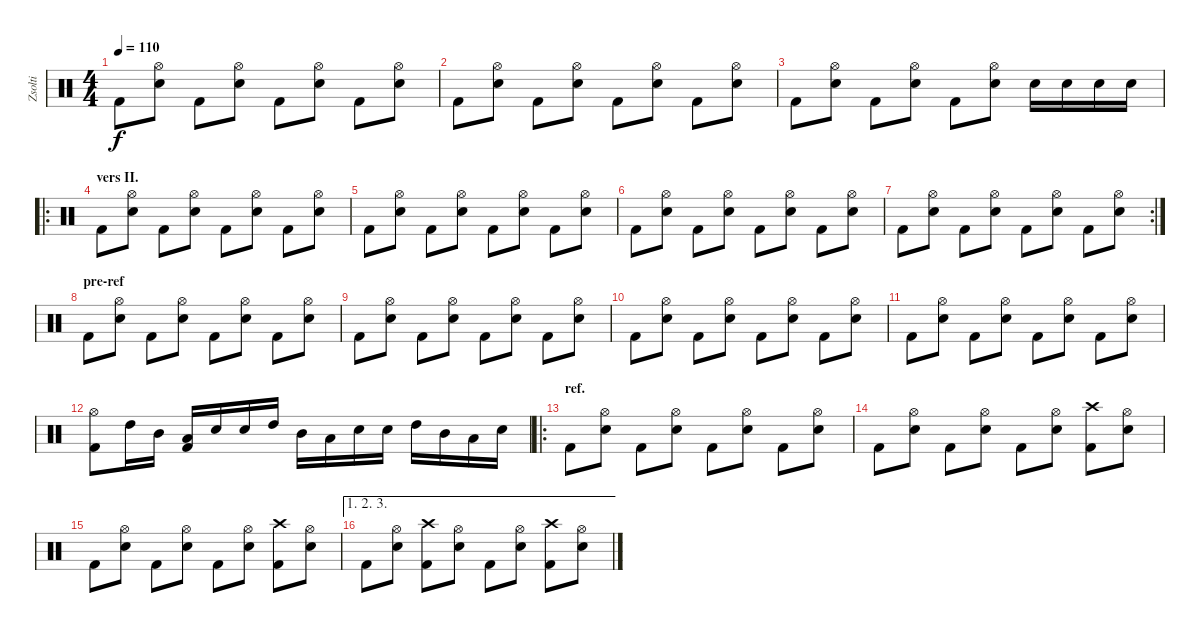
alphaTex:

\track ("Zsolti" "Zsolti") {instrument percussion}
\staff {score}
\articulation defaults
\ts (4 4)
\tempo 110
\clef neutral
\ks c "Kick (hit) 2".8{dy f}
("Hi-Hat (open)" "Snare (hit) 2").8 "Kick (hit) 2".8 ("Hi-Hat (open)" "Snare (hit) 2").8 "Kick (hit) 2".8 ("Hi-Hat (open)" "Snare (hit) 2").8 "Kick (hit) 2".8 ("Hi-Hat (open)" "Snare (hit) 2").8 |
"Kick (hit) 2".8 ("Hi-Hat (open)" "Snare (hit) 2").8 "Kick (hit) 2".8 ("Hi-Hat (open)" "Snare (hit) 2").8 "Kick (hit) 2".8 ("Hi-Hat (open)" "Snare (hit) 2").8 "Kick (hit) 2".8 ("Hi-Hat (open)" "Snare (hit) 2").8 |
"Kick (hit) 2".8 ("Hi-Hat (open)" "Snare (hit) 2").8 "Kick (hit) 2".8 ("Hi-Hat (open)" "Snare (hit) 2").8 "Kick (hit) 2".8 ("Hi-Hat (open)" "Snare (hit) 2").8 "Snare (hit) 2".16 "Snare (hit) 2".16 "Snare (hit) 2".16 "Snare (hit) 2".16 |
\ro
\section ("" "vers II.")
"Kick (hit) 2".8 ("Hi-Hat (open)" "Snare (hit) 2").8 "Kick (hit) 2".8 ("Hi-Hat (open)" "Snare (hit) 2").8 "Kick (hit) 2".8 ("Hi-Hat (open)" "Snare (hit) 2").8 "Kick (hit) 2".8 ("Hi-Hat (open)" "Snare (hit) 2").8 |
"Kick (hit) 2".8 ("Hi-Hat (open)" "Snare (hit) 2").8 "Kick (hit) 2".8 ("Hi-Hat (open)" "Snare (hit) 2").8 "Kick (hit) 2".8 ("Hi-Hat (open)" "Snare (hit) 2").8 "Kick (hit) 2".8 ("Hi-Hat (open)" "Snare (hit) 2").8 |
"Kick (hit) 2".8 ("Hi-Hat (open)" "Snare (hit) 2").8 "Kick (hit) 2".8 ("Hi-Hat (open)" "Snare (hit) 2").8 "Kick (hit) 2".8 ("Hi-Hat (open)" "Snare (hit) 2").8 "Kick (hit) 2".8 ("Hi-Hat (open)" "Snare (hit) 2").8 |
\rc 2 "Kick (hit) 2".8
("Hi-Hat (open)" "Snare (hit) 2").8 "Kick (hit) 2".8 ("Hi-Hat (open)" "Snare (hit) 2").8 "Kick (hit) 2".8 ("Hi-Hat (open)" "Snare (hit) 2").8 "Kick (hit) 2".8 ("Hi-Hat (open)" "Snare (hit) 2").8 |
\section ("" "pre-ref")
"Kick (hit) 2".8 ("Hi-Hat (open)" "Snare (hit) 2").8 "Kick (hit) 2".8 ("Hi-Hat (open)" "Snare (hit) 2").8 "Kick (hit) 2".8 ("Hi-Hat (open)" "Snare (hit) 2").8 "Kick (hit) 2".8 ("Hi-Hat (open)" "Snare (hit) 2").8 |
"Kick (hit) 2".8 ("Hi-Hat (open)" "Snare (hit) 2").8 "Kick (hit) 2".8 ("Hi-Hat (open)" "Snare (hit) 2").8 "Kick (hit) 2".8 ("Hi-Hat (open)" "Snare (hit) 2").8 "Kick (hit) 2".8 ("Hi-Hat (open)" "Snare (hit) 2").8 |
"Kick (hit) 2".8 ("Hi-Hat (open)" "Snare (hit) 2").8 "Kick (hit) 2".8 ("Hi-Hat (open)" "Snare (hit) 2").8 "Kick (hit) 2".8 ("Hi-Hat (open)" "Snare (hit) 2").8 "Kick (hit) 2".8 ("Hi-Hat (open)" "Snare (hit) 2").8 |
"Kick (hit) 2".8 ("Hi-Hat (open)" "Snare (hit) 2").8 "Kick (hit) 2".8 ("Hi-Hat (open)" "Snare (hit) 2").8 "Kick (hit) 2".8 ("Hi-Hat (open)" "Snare (hit) 2").8 "Kick (hit) 2".8 ("Hi-Hat (open)" "Snare (hit) 2").8 |
("Hi-Hat (open)" "Kick (hit) 2").8 "High Tom (hit)".16 "Mid Tom (hit)".16 ("Low Tom (hit)" "Kick (hit) 2").16 "Snare (hit) 2".16 "Snare (hit) 2".16 "High Tom (hit)".16 "Mid Tom (hit)".16 "Low Tom (hit)".16 "Snare (hit) 2".16 "Snare (hit) 2".16 "High Tom (hit)".16 "Mid Tom (hit)".16 "Low Tom (hit)".16 "Snare (hit) 2".16 |
\ro
\section ("" "ref.")
"Kick (hit) 2".8 ("Hi-Hat (open)" "Snare (hit) 2").8 "Kick (hit) 2".8 ("Hi-Hat (open)" "Snare (hit) 2").8 "Kick (hit) 2".8 ("Hi-Hat (open)" "Snare (hit) 2").8 "Kick (hit) 2".8 ("Hi-Hat (open)" "Snare (hit) 2").8 |
"Kick (hit) 2".8 ("Hi-Hat (open)" "Snare (hit) 2").8 "Kick (hit) 2".8 ("Hi-Hat (open)" "Snare (hit) 2").8 "Kick (hit) 2".8 ("Hi-Hat (open)" "Snare (hit) 2").8 ("Crash high (hit)" "Kick (hit) 2").8 ("Hi-Hat (open)" "Snare (hit) 2").8 |
"Kick (hit) 2".8 ("Hi-Hat (open)" "Snare (hit) 2").8 "Kick (hit) 2".8 ("Hi-Hat (open)" "Snare (hit) 2").8 "Kick (hit) 2".8 ("Hi-Hat (open)" "Snare (hit) 2").8 ("Crash high (hit)" "Kick (hit) 2").8 ("Hi-Hat (open)" "Snare (hit) 2").8 |
\ae (1 2 3)
"Kick (hit) 2".8 ("Hi-Hat (open)" "Snare (hit) 2").8 ("Crash high (hit)" "Kick (hit) 2").8 ("Hi-Hat (open)" "Snare (hit) 2").8 "Kick (hit) 2".8 ("Hi-Hat (open)" "Snare (hit) 2").8 ("Crash high (hit)" "Kick (hit) 2").8 ("Hi-Hat (open)" "Snare (hit) 2").8
